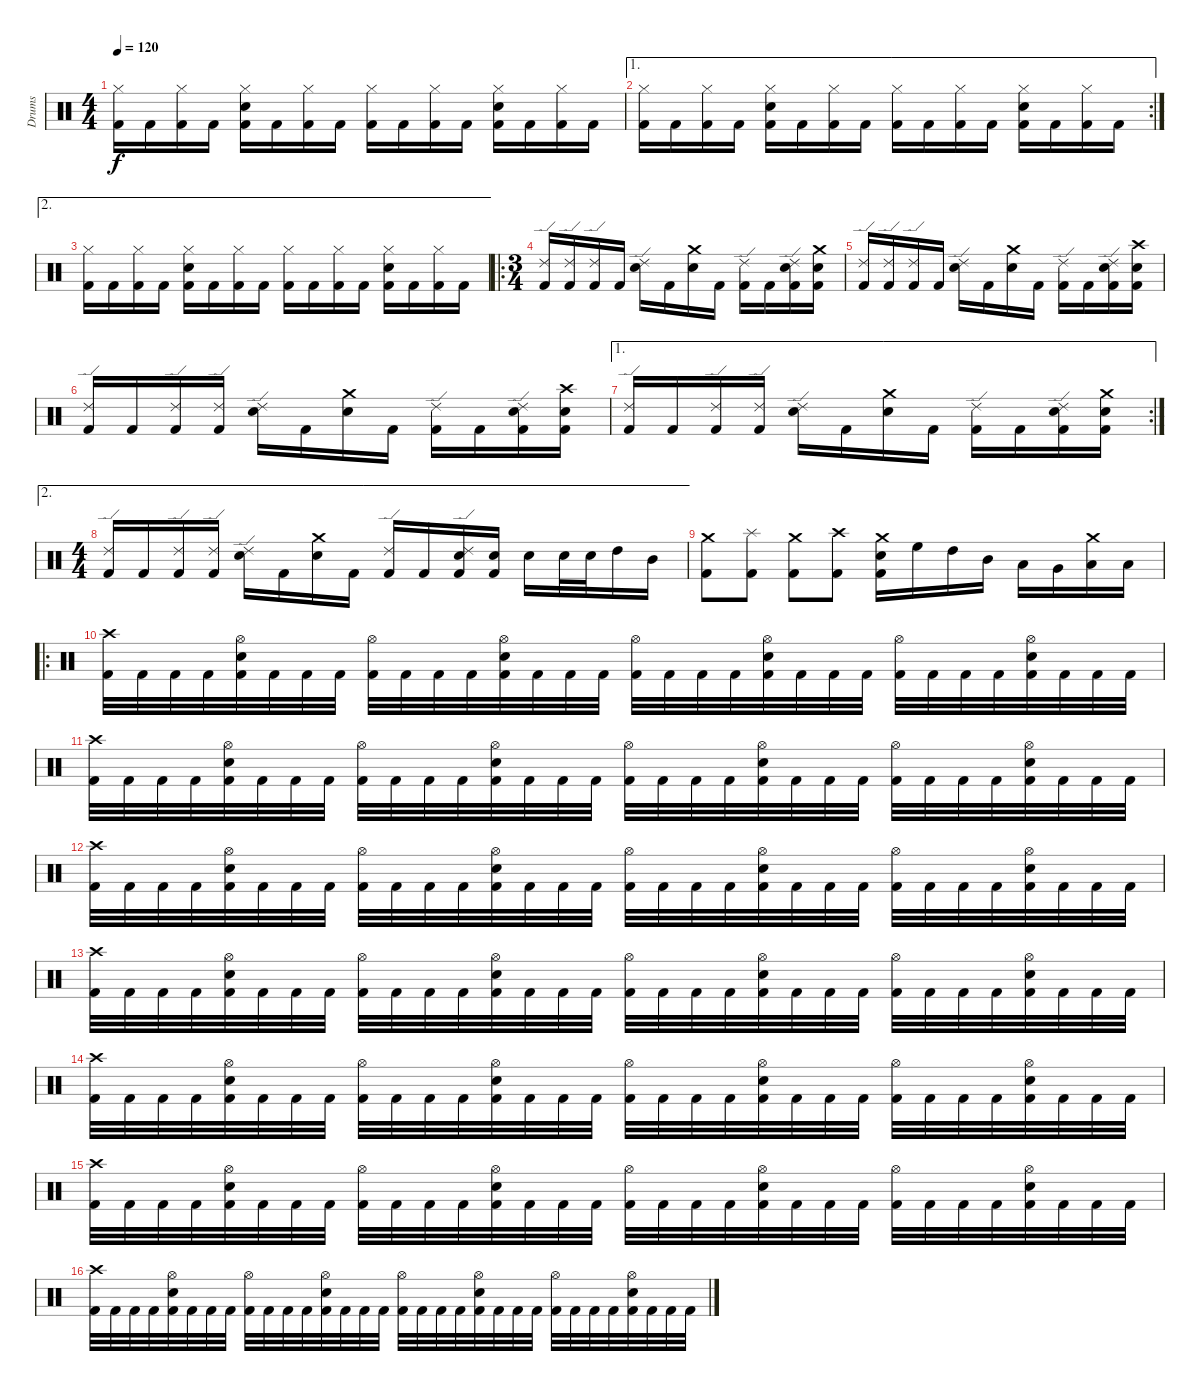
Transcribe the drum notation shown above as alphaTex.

\track ("Drums" "Drums") {instrument percussion}
\staff {score}
\articulation defaults
\ts (4 4)
\tempo 120
\clef neutral
\ks c
("Hi-Hat (closed)" "Kick (hit) 2").16{dy f} "Kick (hit) 2".16 ("Hi-Hat (closed)" "Kick (hit) 2").16 "Kick (hit) 2".16 ("Hi-Hat (closed)" "Snare (hit) 2" "Kick (hit) 2").16 "Kick (hit) 2".16 ("Hi-Hat (closed)" "Kick (hit) 2").16 "Kick (hit) 2".16 ("Hi-Hat (closed)" "Kick (hit) 2").16 "Kick (hit) 2".16 ("Hi-Hat (closed)" "Kick (hit) 2").16 "Kick (hit) 2".16 ("Hi-Hat (closed)" "Snare (hit) 2" "Kick (hit) 2").16 "Kick (hit) 2".16 ("Hi-Hat (closed)" "Kick (hit) 2").16 "Kick (hit) 2".16 |
\ae 1
\rc 2
("Hi-Hat (closed)" "Kick (hit) 2").16 "Kick (hit) 2".16 ("Hi-Hat (closed)" "Kick (hit) 2").16 "Kick (hit) 2".16 ("Hi-Hat (closed)" "Snare (hit) 2" "Kick (hit) 2").16 "Kick (hit) 2".16 ("Hi-Hat (closed)" "Kick (hit) 2").16 "Kick (hit) 2".16 ("Hi-Hat (closed)" "Kick (hit) 2").16 "Kick (hit) 2".16 ("Hi-Hat (closed)" "Kick (hit) 2").16 "Kick (hit) 2".16 ("Hi-Hat (closed)" "Snare (hit) 2" "Kick (hit) 2").16 "Kick (hit) 2".16 ("Hi-Hat (closed)" "Kick (hit) 2").16 "Kick (hit) 2".16 |
\ae 2
("Hi-Hat (closed)" "Kick (hit) 2").16 "Kick (hit) 2".16 ("Hi-Hat (closed)" "Kick (hit) 2").16 "Kick (hit) 2".16 ("Hi-Hat (closed)" "Snare (hit) 2" "Kick (hit) 2").16 "Kick (hit) 2".16 ("Hi-Hat (closed)" "Kick (hit) 2").16 "Kick (hit) 2".16 ("Hi-Hat (closed)" "Kick (hit) 2").16 "Kick (hit) 2".16 ("Hi-Hat (closed)" "Kick (hit) 2").16 "Kick (hit) 2".16 ("Hi-Hat (closed)" "Snare (hit) 2" "Kick (hit) 2").16 "Kick (hit) 2".16 ("Hi-Hat (closed)" "Kick (hit) 2").16 "Kick (hit) 2".16 |
\ro
\ts (3 4)
("Ride (edge) 2" "Kick (hit) 2").16 ("Ride (edge) 2" "Kick (hit) 2").16 ("Ride (edge) 2" "Kick (hit) 2").16 "Kick (hit) 2".16 ("Ride (edge) 2" "Snare (hit) 2").16 "Kick (hit) 2".16 ("Crash medium (hit)" "Snare (hit) 2").16 "Kick (hit) 2".16 ("Ride (edge) 2" "Kick (hit) 2").16 "Kick (hit) 2".16 ("Ride (edge) 2" "Snare (hit) 2" "Kick (hit) 2").16 ("Crash medium (hit)" "Snare (hit) 2" "Kick (hit) 2").16 |
("Ride (edge) 2" "Kick (hit) 2").16 ("Ride (edge) 2" "Kick (hit) 2").16 ("Ride (edge) 2" "Kick (hit) 2").16 "Kick (hit) 2".16 ("Ride (edge) 2" "Snare (hit) 2").16 "Kick (hit) 2".16 ("Crash medium (hit)" "Snare (hit) 2").16 "Kick (hit) 2".16 ("Ride (edge) 2" "Kick (hit) 2").16 "Kick (hit) 2".16 ("Ride (edge) 2" "Snare (hit) 2" "Kick (hit) 2").16 ("Crash high (hit)" "Snare (hit) 2" "Kick (hit) 2").16 |
("Ride (edge) 2" "Kick (hit) 2").16 "Kick (hit) 2".16 ("Ride (edge) 2" "Kick (hit) 2").16 ("Ride (edge) 2" "Kick (hit) 2").16 ("Ride (edge) 2" "Snare (hit) 2").16 "Kick (hit) 2".16 ("Crash medium (hit)" "Snare (hit) 2").16 "Kick (hit) 2".16 ("Ride (edge) 2" "Kick (hit) 2").16 "Kick (hit) 2".16 ("Ride (edge) 2" "Snare (hit) 2" "Kick (hit) 2").16 ("Crash high (hit)" "Snare (hit) 2" "Kick (hit) 2").16 |
\ae 1
\rc 2
("Ride (edge) 2" "Kick (hit) 2").16 "Kick (hit) 2".16 ("Ride (edge) 2" "Kick (hit) 2").16 ("Ride (edge) 2" "Kick (hit) 2").16 ("Ride (edge) 2" "Snare (hit) 2").16 "Kick (hit) 2".16 ("Crash medium (hit)" "Snare (hit) 2").16 "Kick (hit) 2".16 ("Ride (edge) 2" "Kick (hit) 2").16 "Kick (hit) 2".16 ("Ride (edge) 2" "Snare (hit) 2" "Kick (hit) 2").16 ("Crash medium (hit)" "Snare (hit) 2" "Kick (hit) 2").16 |
\ae 2
\ts (4 4)
("Ride (edge) 2" "Kick (hit) 2").16 "Kick (hit) 2".16 ("Ride (edge) 2" "Kick (hit) 2").16 ("Ride (edge) 2" "Kick (hit) 2").16 ("Ride (edge) 2" "Snare (hit) 2").16 "Kick (hit) 2".16 ("Crash medium (hit)" "Snare (hit) 2").16 "Kick (hit) 2".16 ("Ride (edge) 2" "Kick (hit) 2").16 "Kick (hit) 2".16 ("Ride (edge) 2" "Snare (hit) 2" "Kick (hit) 2").16 ("Snare (hit) 2" "Kick (hit) 2").16 "Snare (hit) 2".16 "Snare (hit) 2".32 "Snare (hit) 2".32 "High Tom (hit)".16 "Mid Tom (hit)".16 |
("Crash medium (hit)" "Kick (hit) 2").8 ("Splash (hit)" "Kick (hit) 2").8 ("Crash medium (hit)" "Kick (hit) 2").8 ("Crash high (hit)" "Kick (hit) 2").8 ("Crash medium (hit)" "Snare (hit) 2" "Kick (hit) 2").16 "High Floor Tom (hit)".16 "High Tom (hit)".16 "Mid Tom (hit)".16 "Low Tom (hit)".16 "Very Low Tom (hit)".16 ("Crash medium (hit)" "Low Floor Tom (hit)").16 "Low Floor Tom (hit)".16 |
\ro
("Crash high (hit)" "Kick (hit) 2").32 "Kick (hit) 2".32 "Kick (hit) 2".32 "Kick (hit) 2".32 ("Hi-Hat (open)" "Snare (hit) 2" "Kick (hit) 2").32 "Kick (hit) 2".32 "Kick (hit) 2".32 "Kick (hit) 2".32 ("Hi-Hat (open)" "Kick (hit) 2").32 "Kick (hit) 2".32 "Kick (hit) 2".32 "Kick (hit) 2".32 ("Hi-Hat (open)" "Snare (hit) 2" "Kick (hit) 2").32 "Kick (hit) 2".32 "Kick (hit) 2".32 "Kick (hit) 2".32 ("Hi-Hat (open)" "Kick (hit) 2").32 "Kick (hit) 2".32 "Kick (hit) 2".32 "Kick (hit) 2".32 ("Hi-Hat (open)" "Snare (hit) 2" "Kick (hit) 2").32 "Kick (hit) 2".32 "Kick (hit) 2".32 "Kick (hit) 2".32 ("Hi-Hat (open)" "Kick (hit) 2").32 "Kick (hit) 2".32 "Kick (hit) 2".32 "Kick (hit) 2".32 ("Hi-Hat (open)" "Snare (hit) 2" "Kick (hit) 2").32 "Kick (hit) 2".32 "Kick (hit) 2".32 "Kick (hit) 2".32 |
("Crash high (hit)" "Kick (hit) 2").32 "Kick (hit) 2".32 "Kick (hit) 2".32 "Kick (hit) 2".32 ("Hi-Hat (open)" "Snare (hit) 2" "Kick (hit) 2").32 "Kick (hit) 2".32 "Kick (hit) 2".32 "Kick (hit) 2".32 ("Hi-Hat (open)" "Kick (hit) 2").32 "Kick (hit) 2".32 "Kick (hit) 2".32 "Kick (hit) 2".32 ("Hi-Hat (open)" "Snare (hit) 2" "Kick (hit) 2").32 "Kick (hit) 2".32 "Kick (hit) 2".32 "Kick (hit) 2".32 ("Hi-Hat (open)" "Kick (hit) 2").32 "Kick (hit) 2".32 "Kick (hit) 2".32 "Kick (hit) 2".32 ("Hi-Hat (open)" "Snare (hit) 2" "Kick (hit) 2").32 "Kick (hit) 2".32 "Kick (hit) 2".32 "Kick (hit) 2".32 ("Hi-Hat (open)" "Kick (hit) 2").32 "Kick (hit) 2".32 "Kick (hit) 2".32 "Kick (hit) 2".32 ("Hi-Hat (open)" "Snare (hit) 2" "Kick (hit) 2").32 "Kick (hit) 2".32 "Kick (hit) 2".32 "Kick (hit) 2".32 |
("Crash high (hit)" "Kick (hit) 2").32 "Kick (hit) 2".32 "Kick (hit) 2".32 "Kick (hit) 2".32 ("Hi-Hat (open)" "Snare (hit) 2" "Kick (hit) 2").32 "Kick (hit) 2".32 "Kick (hit) 2".32 "Kick (hit) 2".32 ("Hi-Hat (open)" "Kick (hit) 2").32 "Kick (hit) 2".32 "Kick (hit) 2".32 "Kick (hit) 2".32 ("Hi-Hat (open)" "Snare (hit) 2" "Kick (hit) 2").32 "Kick (hit) 2".32 "Kick (hit) 2".32 "Kick (hit) 2".32 ("Hi-Hat (open)" "Kick (hit) 2").32 "Kick (hit) 2".32 "Kick (hit) 2".32 "Kick (hit) 2".32 ("Hi-Hat (open)" "Snare (hit) 2" "Kick (hit) 2").32 "Kick (hit) 2".32 "Kick (hit) 2".32 "Kick (hit) 2".32 ("Hi-Hat (open)" "Kick (hit) 2").32 "Kick (hit) 2".32 "Kick (hit) 2".32 "Kick (hit) 2".32 ("Hi-Hat (open)" "Snare (hit) 2" "Kick (hit) 2").32 "Kick (hit) 2".32 "Kick (hit) 2".32 "Kick (hit) 2".32 |
("Crash high (hit)" "Kick (hit) 2").32 "Kick (hit) 2".32 "Kick (hit) 2".32 "Kick (hit) 2".32 ("Hi-Hat (open)" "Snare (hit) 2" "Kick (hit) 2").32 "Kick (hit) 2".32 "Kick (hit) 2".32 "Kick (hit) 2".32 ("Hi-Hat (open)" "Kick (hit) 2").32 "Kick (hit) 2".32 "Kick (hit) 2".32 "Kick (hit) 2".32 ("Hi-Hat (open)" "Snare (hit) 2" "Kick (hit) 2").32 "Kick (hit) 2".32 "Kick (hit) 2".32 "Kick (hit) 2".32 ("Hi-Hat (open)" "Kick (hit) 2").32 "Kick (hit) 2".32 "Kick (hit) 2".32 "Kick (hit) 2".32 ("Hi-Hat (open)" "Snare (hit) 2" "Kick (hit) 2").32 "Kick (hit) 2".32 "Kick (hit) 2".32 "Kick (hit) 2".32 ("Hi-Hat (open)" "Kick (hit) 2").32 "Kick (hit) 2".32 "Kick (hit) 2".32 "Kick (hit) 2".32 ("Hi-Hat (open)" "Snare (hit) 2" "Kick (hit) 2").32 "Kick (hit) 2".32 "Kick (hit) 2".32 "Kick (hit) 2".32 |
("Crash high (hit)" "Kick (hit) 2").32 "Kick (hit) 2".32 "Kick (hit) 2".32 "Kick (hit) 2".32 ("Hi-Hat (open)" "Snare (hit) 2" "Kick (hit) 2").32 "Kick (hit) 2".32 "Kick (hit) 2".32 "Kick (hit) 2".32 ("Hi-Hat (open)" "Kick (hit) 2").32 "Kick (hit) 2".32 "Kick (hit) 2".32 "Kick (hit) 2".32 ("Hi-Hat (open)" "Snare (hit) 2" "Kick (hit) 2").32 "Kick (hit) 2".32 "Kick (hit) 2".32 "Kick (hit) 2".32 ("Hi-Hat (open)" "Kick (hit) 2").32 "Kick (hit) 2".32 "Kick (hit) 2".32 "Kick (hit) 2".32 ("Hi-Hat (open)" "Snare (hit) 2" "Kick (hit) 2").32 "Kick (hit) 2".32 "Kick (hit) 2".32 "Kick (hit) 2".32 ("Hi-Hat (open)" "Kick (hit) 2").32 "Kick (hit) 2".32 "Kick (hit) 2".32 "Kick (hit) 2".32 ("Hi-Hat (open)" "Snare (hit) 2" "Kick (hit) 2").32 "Kick (hit) 2".32 "Kick (hit) 2".32 "Kick (hit) 2".32 |
("Crash high (hit)" "Kick (hit) 2").32 "Kick (hit) 2".32 "Kick (hit) 2".32 "Kick (hit) 2".32 ("Hi-Hat (open)" "Snare (hit) 2" "Kick (hit) 2").32 "Kick (hit) 2".32 "Kick (hit) 2".32 "Kick (hit) 2".32 ("Hi-Hat (open)" "Kick (hit) 2").32 "Kick (hit) 2".32 "Kick (hit) 2".32 "Kick (hit) 2".32 ("Hi-Hat (open)" "Snare (hit) 2" "Kick (hit) 2").32 "Kick (hit) 2".32 "Kick (hit) 2".32 "Kick (hit) 2".32 ("Hi-Hat (open)" "Kick (hit) 2").32 "Kick (hit) 2".32 "Kick (hit) 2".32 "Kick (hit) 2".32 ("Hi-Hat (open)" "Snare (hit) 2" "Kick (hit) 2").32 "Kick (hit) 2".32 "Kick (hit) 2".32 "Kick (hit) 2".32 ("Hi-Hat (open)" "Kick (hit) 2").32 "Kick (hit) 2".32 "Kick (hit) 2".32 "Kick (hit) 2".32 ("Hi-Hat (open)" "Snare (hit) 2" "Kick (hit) 2").32 "Kick (hit) 2".32 "Kick (hit) 2".32 "Kick (hit) 2".32 |
("Crash high (hit)" "Kick (hit) 2").32 "Kick (hit) 2".32 "Kick (hit) 2".32 "Kick (hit) 2".32 ("Hi-Hat (open)" "Snare (hit) 2" "Kick (hit) 2").32 "Kick (hit) 2".32 "Kick (hit) 2".32 "Kick (hit) 2".32 ("Hi-Hat (open)" "Kick (hit) 2").32 "Kick (hit) 2".32 "Kick (hit) 2".32 "Kick (hit) 2".32 ("Hi-Hat (open)" "Snare (hit) 2" "Kick (hit) 2").32 "Kick (hit) 2".32 "Kick (hit) 2".32 "Kick (hit) 2".32 ("Hi-Hat (open)" "Kick (hit) 2").32 "Kick (hit) 2".32 "Kick (hit) 2".32 "Kick (hit) 2".32 ("Hi-Hat (open)" "Snare (hit) 2" "Kick (hit) 2").32 "Kick (hit) 2".32 "Kick (hit) 2".32 "Kick (hit) 2".32 ("Hi-Hat (open)" "Kick (hit) 2").32 "Kick (hit) 2".32 "Kick (hit) 2".32 "Kick (hit) 2".32 ("Hi-Hat (open)" "Snare (hit) 2" "Kick (hit) 2").32 "Kick (hit) 2".32 "Kick (hit) 2".32 "Kick (hit) 2".32
